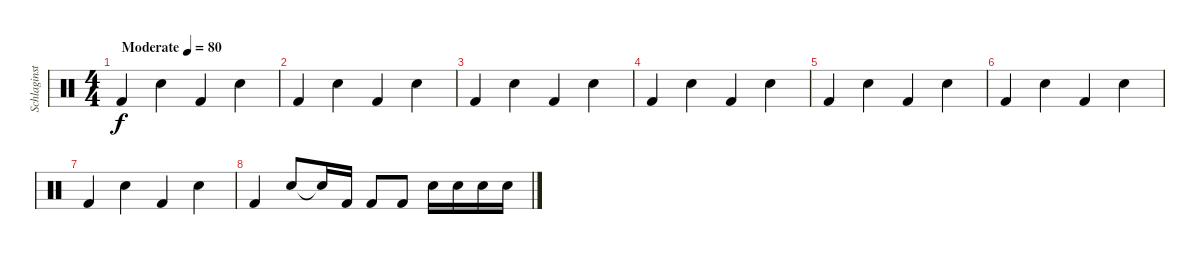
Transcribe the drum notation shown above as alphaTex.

\track ("Schlaginstrumente - Auswahl" "Schlaginst") {instrument percussion}
\staff {score}
\articulation defaults
\ts (4 4)
\tempo (80 "Moderate")
\clef neutral
\ks c "Kick (hit) 2".4{dy f} "Snare (hit) 2".4 "Kick (hit) 2".4 "Snare (hit) 2".4
|
"Kick (hit) 2".4 "Snare (hit) 2".4 "Kick (hit) 2".4 "Snare (hit) 2".4 |
"Kick (hit) 2".4 "Snare (hit) 2".4 "Kick (hit) 2".4 "Snare (hit) 2".4 |
"Kick (hit) 2".4 "Snare (hit) 2".4 "Kick (hit) 2".4 "Snare (hit) 2".4 |
"Kick (hit) 2".4 "Snare (hit) 2".4 "Kick (hit) 2".4 "Snare (hit) 2".4 |
"Kick (hit) 2".4 "Snare (hit) 2".4 "Kick (hit) 2".4 "Snare (hit) 2".4 |
"Kick (hit) 2".4 "Snare (hit) 2".4 "Kick (hit) 2".4 "Snare (hit) 2".4 |
"Kick (hit) 2".4 "Snare (hit) 2".8 "Snare (hit) 2"{t}.16 "Kick (hit) 2".16 "Kick (hit) 2".8 "Kick (hit) 2".8 "Snare (hit) 2".16 "Snare (hit) 2".16 "Snare (hit) 2".16 "Snare (hit) 2".16
